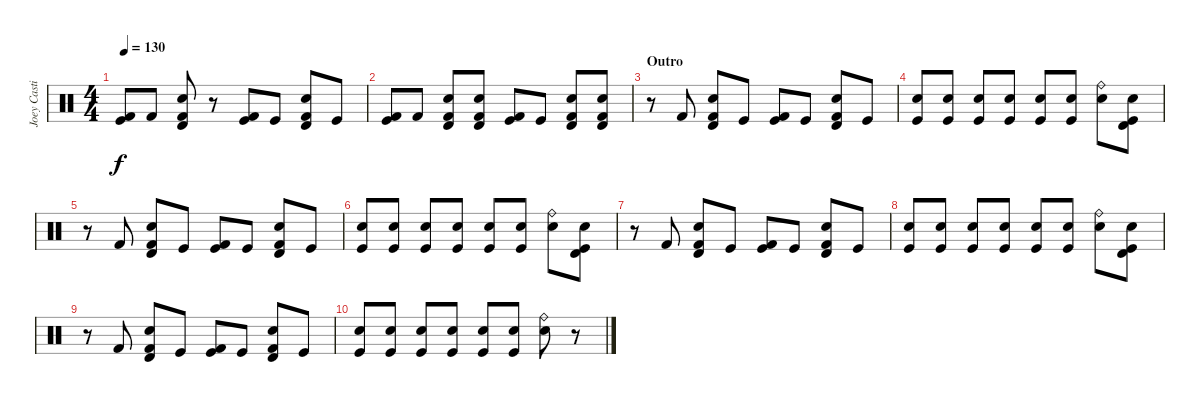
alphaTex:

\track ("Joey Castillo  (Batterie)" "Joey Casti") {instrument percussion}
\staff {score}
\articulation defaults
\ts (4 4)
\tempo 130
\clef neutral
\ks c
("Kick (hit) 2" "Kick (hit)").8{dy f} "Kick (hit) 2".8 ("Kick (hit) 2" "Timbale high (hit)" "Electric Snare (hit)").8 r.8 ("Kick (hit) 2" "Kick (hit)").8 "Kick (hit)".8 ("Kick (hit) 2" "Timbale high (hit)" "Electric Snare (hit)").8 "Kick (hit)".8 |
("Kick (hit) 2" "Kick (hit)").8 "Kick (hit) 2".8 ("Kick (hit) 2" "Timbale high (hit)" "Electric Snare (hit)").8 ("Kick (hit) 2" "Timbale high (hit)" "Electric Snare (hit)").8 ("Kick (hit) 2" "Kick (hit)").8 "Kick (hit)".8 ("Kick (hit) 2" "Timbale high (hit)" "Electric Snare (hit)").8 ("Kick (hit) 2" "Timbale high (hit)" "Electric Snare (hit)").8 |
\section ("" "Outro")
r.8 "Kick (hit) 2".8 ("Kick (hit) 2" "Timbale high (hit)" "Electric Snare (hit)").8 "Kick (hit)".8 ("Kick (hit) 2" "Kick (hit)").8 "Kick (hit)".8 ("Kick (hit) 2" "Timbale high (hit)" "Electric Snare (hit)").8 "Kick (hit)".8 |
("Electric Snare (hit)" "Kick (hit)").8 ("Electric Snare (hit)" "Kick (hit)").8 ("Electric Snare (hit)" "Kick (hit)").8 ("Electric Snare (hit)" "Kick (hit)").8 ("Electric Snare (hit)" "Kick (hit)").8 ("Electric Snare (hit)" "Kick (hit)").8 ("Electric Snare (hit)" "Ride (bell)").8 ("Electric Snare (hit)" "Kick (hit)" "Timbale high (hit)").8 |
r.8 "Kick (hit) 2".8 ("Kick (hit) 2" "Timbale high (hit)" "Electric Snare (hit)").8 "Kick (hit)".8 ("Kick (hit) 2" "Kick (hit)").8 "Kick (hit)".8 ("Kick (hit) 2" "Timbale high (hit)" "Electric Snare (hit)").8 "Kick (hit)".8 |
("Electric Snare (hit)" "Kick (hit)").8 ("Electric Snare (hit)" "Kick (hit)").8 ("Electric Snare (hit)" "Kick (hit)").8 ("Electric Snare (hit)" "Kick (hit)").8 ("Electric Snare (hit)" "Kick (hit)").8 ("Electric Snare (hit)" "Kick (hit)").8 ("Electric Snare (hit)" "Ride (bell)").8 ("Electric Snare (hit)" "Kick (hit)" "Timbale high (hit)").8 |
r.8 "Kick (hit) 2".8 ("Kick (hit) 2" "Timbale high (hit)" "Electric Snare (hit)").8 "Kick (hit)".8 ("Kick (hit) 2" "Kick (hit)").8 "Kick (hit)".8 ("Kick (hit) 2" "Timbale high (hit)" "Electric Snare (hit)").8 "Kick (hit)".8 |
("Electric Snare (hit)" "Kick (hit)").8 ("Electric Snare (hit)" "Kick (hit)").8 ("Electric Snare (hit)" "Kick (hit)").8 ("Electric Snare (hit)" "Kick (hit)").8 ("Electric Snare (hit)" "Kick (hit)").8 ("Electric Snare (hit)" "Kick (hit)").8 ("Electric Snare (hit)" "Ride (bell)").8 ("Electric Snare (hit)" "Kick (hit)" "Timbale high (hit)").8 |
r.8 "Kick (hit) 2".8 ("Kick (hit) 2" "Timbale high (hit)" "Electric Snare (hit)").8 "Kick (hit)".8 ("Kick (hit) 2" "Kick (hit)").8 "Kick (hit)".8 ("Kick (hit) 2" "Timbale high (hit)" "Electric Snare (hit)").8 "Kick (hit)".8 |
("Electric Snare (hit)" "Kick (hit)").8 ("Electric Snare (hit)" "Kick (hit)").8 ("Electric Snare (hit)" "Kick (hit)").8 ("Electric Snare (hit)" "Kick (hit)").8 ("Electric Snare (hit)" "Kick (hit)").8 ("Electric Snare (hit)" "Kick (hit)").8 ("Electric Snare (hit)" "Ride (bell)").8 r.8
